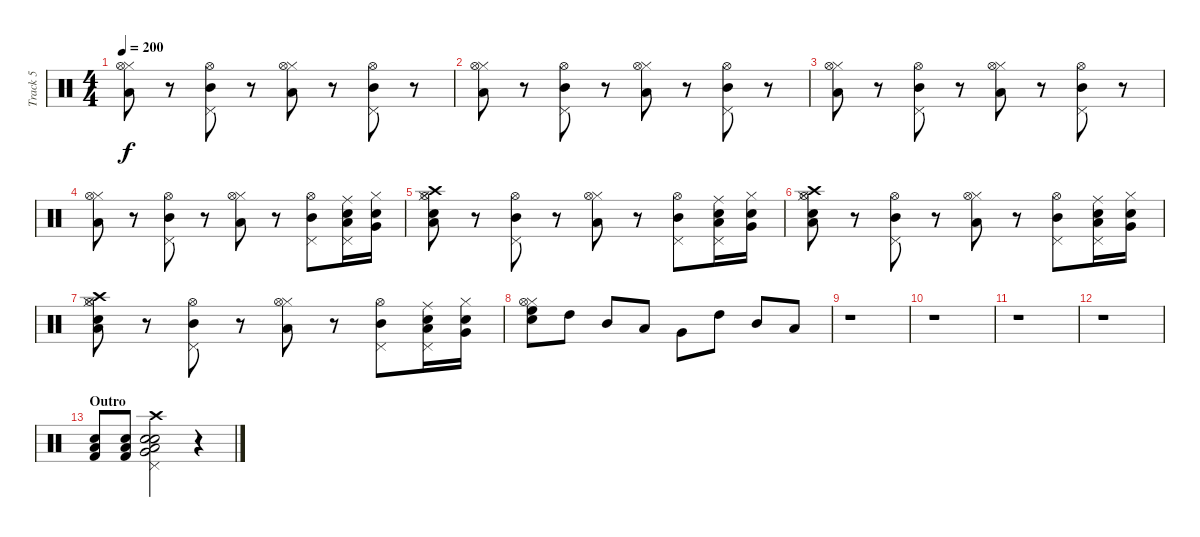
\track ("Track 5" "Track 5") {instrument percussion}
\staff {score}
\articulation defaults
\ts (4 4)
\tempo 200
\clef neutral
\ks c
("Low Tom (hit)" "Hi-Hat (closed)" "Hi-Hat (open)").8{dy f} r.8 ("Mid Tom (hit)" "Pedal Hi-Hat (hit)" "Hi-Hat (open)").8 r.8 ("Low Tom (hit)" "Hi-Hat (closed)" "Hi-Hat (open)").8 r.8 ("Mid Tom (hit)" "Pedal Hi-Hat (hit)" "Hi-Hat (open)").8 r.8 |
("Low Tom (hit)" "Hi-Hat (closed)" "Hi-Hat (open)").8 r.8 ("Mid Tom (hit)" "Pedal Hi-Hat (hit)" "Hi-Hat (open)").8 r.8 ("Low Tom (hit)" "Hi-Hat (closed)" "Hi-Hat (open)").8 r.8 ("Mid Tom (hit)" "Pedal Hi-Hat (hit)" "Hi-Hat (open)").8 r.8 |
("Low Tom (hit)" "Hi-Hat (closed)" "Hi-Hat (open)").8 r.8 ("Mid Tom (hit)" "Pedal Hi-Hat (hit)" "Hi-Hat (open)").8 r.8 ("Low Tom (hit)" "Hi-Hat (closed)" "Hi-Hat (open)").8 r.8 ("Mid Tom (hit)" "Pedal Hi-Hat (hit)" "Hi-Hat (open)").8 r.8 |
("Low Tom (hit)" "Hi-Hat (closed)" "Hi-Hat (open)").8 r.8 ("Mid Tom (hit)" "Pedal Hi-Hat (hit)" "Hi-Hat (open)").8 r.8 ("Low Tom (hit)" "Hi-Hat (closed)" "Hi-Hat (open)").8 r.8 ("Mid Tom (hit)" "Pedal Hi-Hat (hit)" "Hi-Hat (open)").8 ("Low Tom (hit)" "Pedal Hi-Hat (hit)" "Ride (middle)" "Electric Snare (hit)").16 ("Very Low Tom (hit)" "Hi-Hat (closed)" "Snare (hit) 2").16 |
("Low Tom (hit)" "Hi-Hat (closed)" "Hi-Hat (open)" "Crash high (hit)" "Electric Snare (hit)").8 r.8 ("Mid Tom (hit)" "Pedal Hi-Hat (hit)" "Hi-Hat (open)").8 r.8 ("Low Tom (hit)" "Hi-Hat (closed)" "Hi-Hat (open)").8 r.8 ("Mid Tom (hit)" "Pedal Hi-Hat (hit)" "Hi-Hat (open)").8 ("Low Tom (hit)" "Pedal Hi-Hat (hit)" "Ride (middle)" "Electric Snare (hit)").16 ("Very Low Tom (hit)" "Hi-Hat (closed)" "Snare (hit) 2").16 |
("Low Tom (hit)" "Hi-Hat (closed)" "Hi-Hat (open)" "Crash high (hit)" "Electric Snare (hit)").8 r.8 ("Mid Tom (hit)" "Pedal Hi-Hat (hit)" "Hi-Hat (open)").8 r.8 ("Low Tom (hit)" "Hi-Hat (closed)" "Hi-Hat (open)").8 r.8 ("Mid Tom (hit)" "Pedal Hi-Hat (hit)" "Hi-Hat (open)").8 ("Low Tom (hit)" "Pedal Hi-Hat (hit)" "Ride (middle)" "Electric Snare (hit)").16 ("Very Low Tom (hit)" "Hi-Hat (closed)" "Snare (hit) 2").16 |
("Low Tom (hit)" "Hi-Hat (closed)" "Hi-Hat (open)" "Crash high (hit)" "Electric Snare (hit)").8 r.8 ("Mid Tom (hit)" "Pedal Hi-Hat (hit)" "Hi-Hat (open)").8 r.8 ("Low Tom (hit)" "Hi-Hat (closed)" "Hi-Hat (open)").8 r.8 ("Mid Tom (hit)" "Pedal Hi-Hat (hit)" "Hi-Hat (open)").8 ("Low Tom (hit)" "Pedal Hi-Hat (hit)" "Ride (middle)" "Electric Snare (hit)").16 ("Very Low Tom (hit)" "Hi-Hat (closed)" "Snare (hit) 2").16 |
("High Floor Tom (hit)" "Hi-Hat (closed)" "Hi-Hat (open)" "Snare (hit) 2").8 "High Tom (hit)".8 "Mid Tom (hit)".8 "Low Tom (hit)".8 "Very Low Tom (hit)".8 "High Tom (hit)".8 "Mid Tom (hit)".8 "Low Tom (hit)".8 |
r.1 |
r.1 |
r.1 |
r.1 |
\section ("" "Outro")
("Low Floor Tom (hit)" "Kick (hit) 2" "Electric Snare (hit)").8 ("Low Floor Tom (hit)" "Kick (hit) 2" "Electric Snare (hit)").8 ("Snare (hit) 2" "Electric Snare (hit)" "Low Tom (hit)" "Very Low Tom (hit)" "Crash high (hit)" "Pedal Hi-Hat (hit)").2 r.4
